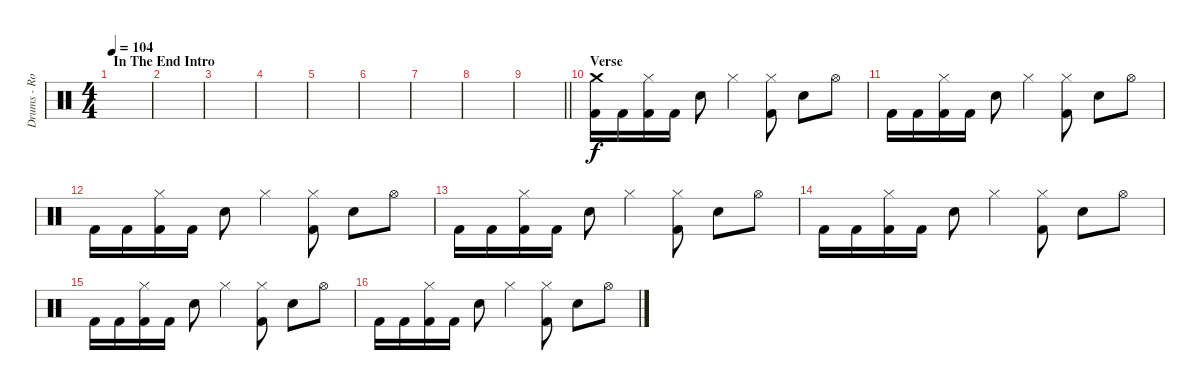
\track ("Drums - Rob Bourdon" "Drums - Ro") {instrument percussion}
\staff {score}
\articulation defaults
\ts (4 4)
\section ("" "In The End Intro")
\tempo 104
\clef neutral
\ks c
|
|
|
|
|
|
|
|
\barLineRight lightlight
|
\section ("" "Verse")
("Crash medium (hit)" "Kick (hit) 2").16{dy f volume 11} "Kick (hit) 2".16 ("Hi-Hat (closed)" "Kick (hit) 2").16 "Kick (hit) 2".16 "Snare (hit) 2".8 "Hi-Hat (closed)".4 ("Hi-Hat (closed)" "Kick (hit) 2").8 "Snare (hit) 2".8 "Hi-Hat (open)".8 |
"Kick (hit) 2".16 "Kick (hit) 2".16 ("Hi-Hat (closed)" "Kick (hit) 2").16 "Kick (hit) 2".16 "Snare (hit) 2".8 "Hi-Hat (closed)".4 ("Hi-Hat (closed)" "Kick (hit) 2").8 "Snare (hit) 2".8 "Hi-Hat (open)".8 |
"Kick (hit) 2".16 "Kick (hit) 2".16 ("Hi-Hat (closed)" "Kick (hit) 2").16 "Kick (hit) 2".16 "Snare (hit) 2".8 "Hi-Hat (closed)".4 ("Hi-Hat (closed)" "Kick (hit) 2").8 "Snare (hit) 2".8 "Hi-Hat (open)".8 |
"Kick (hit) 2".16 "Kick (hit) 2".16 ("Hi-Hat (closed)" "Kick (hit) 2").16 "Kick (hit) 2".16 "Snare (hit) 2".8 "Hi-Hat (closed)".4 ("Hi-Hat (closed)" "Kick (hit) 2").8 "Snare (hit) 2".8 "Hi-Hat (open)".8 |
"Kick (hit) 2".16 "Kick (hit) 2".16 ("Hi-Hat (closed)" "Kick (hit) 2").16 "Kick (hit) 2".16 "Snare (hit) 2".8 "Hi-Hat (closed)".4 ("Hi-Hat (closed)" "Kick (hit) 2").8 "Snare (hit) 2".8 "Hi-Hat (open)".8 |
"Kick (hit) 2".16 "Kick (hit) 2".16 ("Hi-Hat (closed)" "Kick (hit) 2").16 "Kick (hit) 2".16 "Snare (hit) 2".8 "Hi-Hat (closed)".4 ("Hi-Hat (closed)" "Kick (hit) 2").8 "Snare (hit) 2".8 "Hi-Hat (open)".8 |
"Kick (hit) 2".16 "Kick (hit) 2".16 ("Hi-Hat (closed)" "Kick (hit) 2").16 "Kick (hit) 2".16 "Snare (hit) 2".8 "Hi-Hat (closed)".4 ("Hi-Hat (closed)" "Kick (hit) 2").8 "Snare (hit) 2".8 "Hi-Hat (open)".8
